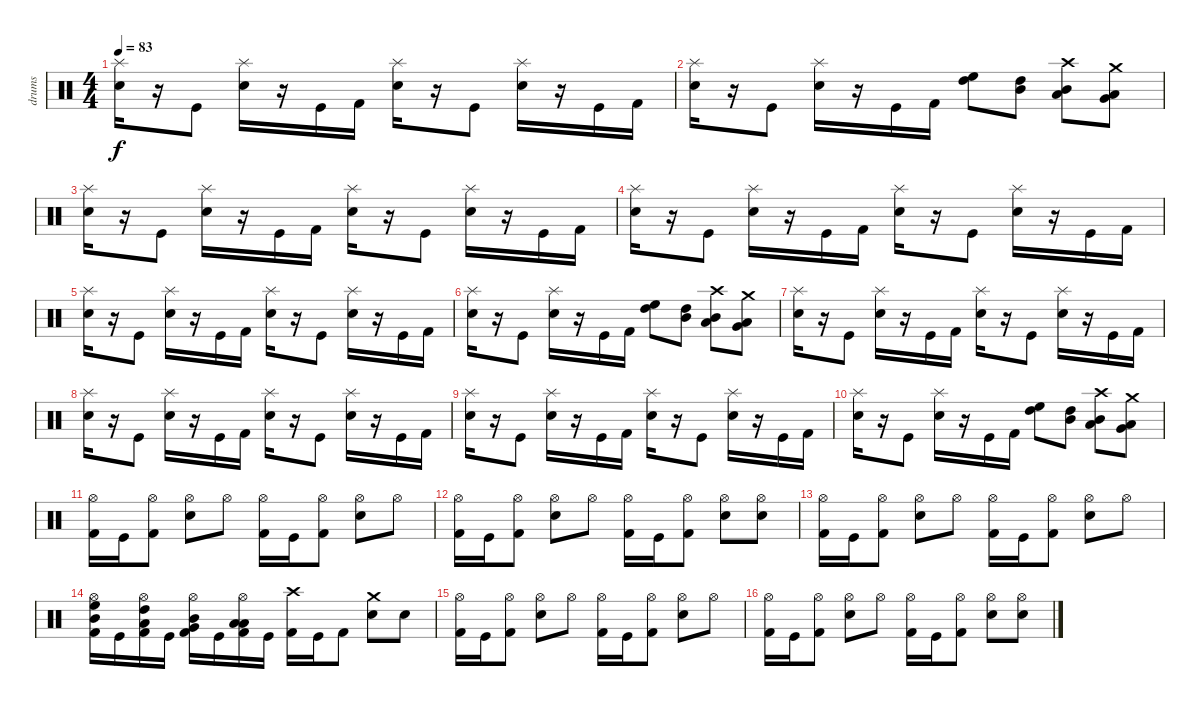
\track ("drums" "drums") {instrument percussion}
\staff {score}
\articulation defaults
\ts (4 4)
\tempo 83
\clef neutral
\ks c
("Snare (hit) 2" "Splash (hit)").16{dy f} r.16 "Kick (hit)".8 ("Snare (hit) 2" "Splash (hit)").16 r.16 "Kick (hit)".16 "Kick (hit) 2".16 ("Snare (hit) 2" "Splash (hit)").16 r.16 "Kick (hit)".8 ("Snare (hit) 2" "Splash (hit)").16 r.16 "Kick (hit)".16 "Kick (hit) 2".16 |
("Snare (hit) 2" "Splash (hit)").16 r.16 "Kick (hit)".8 ("Snare (hit) 2" "Splash (hit)").16 r.16 "Kick (hit)".16 "Kick (hit) 2".16 ("High Floor Tom (hit)" "High Tom (hit)").8 ("Mid Tom (hit)" "High Tom (hit)").8 ("Low Tom (hit)" "Mid Tom (hit)" "Crash high (hit)").8 ("Very Low Tom (hit)" "Low Tom (hit)" "Crash medium (hit)").8 |
("Snare (hit) 2" "Splash (hit)").16 r.16 "Kick (hit)".8 ("Snare (hit) 2" "Splash (hit)").16 r.16 "Kick (hit)".16 "Kick (hit) 2".16 ("Snare (hit) 2" "Splash (hit)").16 r.16 "Kick (hit)".8 ("Snare (hit) 2" "Splash (hit)").16 r.16 "Kick (hit)".16 "Kick (hit) 2".16 |
("Snare (hit) 2" "Splash (hit)").16 r.16 "Kick (hit)".8 ("Snare (hit) 2" "Splash (hit)").16 r.16 "Kick (hit)".16 "Kick (hit) 2".16 ("Snare (hit) 2" "Splash (hit)").16 r.16 "Kick (hit)".8 ("Snare (hit) 2" "Splash (hit)").16 r.16 "Kick (hit)".16 "Kick (hit) 2".16 |
("Snare (hit) 2" "Splash (hit)").16 r.16 "Kick (hit)".8 ("Snare (hit) 2" "Splash (hit)").16 r.16 "Kick (hit)".16 "Kick (hit) 2".16 ("Snare (hit) 2" "Splash (hit)").16 r.16 "Kick (hit)".8 ("Snare (hit) 2" "Splash (hit)").16 r.16 "Kick (hit)".16 "Kick (hit) 2".16 |
("Snare (hit) 2" "Splash (hit)").16 r.16 "Kick (hit)".8 ("Snare (hit) 2" "Splash (hit)").16 r.16 "Kick (hit)".16 "Kick (hit) 2".16 ("High Floor Tom (hit)" "High Tom (hit)").8 ("Mid Tom (hit)" "High Tom (hit)").8 ("Low Tom (hit)" "Mid Tom (hit)" "Crash high (hit)").8 ("Very Low Tom (hit)" "Low Tom (hit)" "Crash medium (hit)").8 |
("Snare (hit) 2" "Splash (hit)").16 r.16 "Kick (hit)".8 ("Snare (hit) 2" "Splash (hit)").16 r.16 "Kick (hit)".16 "Kick (hit) 2".16 ("Snare (hit) 2" "Splash (hit)").16 r.16 "Kick (hit)".8 ("Snare (hit) 2" "Splash (hit)").16 r.16 "Kick (hit)".16 "Kick (hit) 2".16 |
("Snare (hit) 2" "Splash (hit)").16 r.16 "Kick (hit)".8 ("Snare (hit) 2" "Splash (hit)").16 r.16 "Kick (hit)".16 "Kick (hit) 2".16 ("Snare (hit) 2" "Splash (hit)").16 r.16 "Kick (hit)".8 ("Snare (hit) 2" "Splash (hit)").16 r.16 "Kick (hit)".16 "Kick (hit) 2".16 |
("Snare (hit) 2" "Splash (hit)").16 r.16 "Kick (hit)".8 ("Snare (hit) 2" "Splash (hit)").16 r.16 "Kick (hit)".16 "Kick (hit) 2".16 ("Snare (hit) 2" "Splash (hit)").16 r.16 "Kick (hit)".8 ("Snare (hit) 2" "Splash (hit)").16 r.16 "Kick (hit)".16 "Kick (hit) 2".16 |
("Snare (hit) 2" "Splash (hit)").16 r.16 "Kick (hit)".8 ("Snare (hit) 2" "Splash (hit)").16 r.16 "Kick (hit)".16 "Kick (hit) 2".16 ("High Floor Tom (hit)" "High Tom (hit)").8 ("Mid Tom (hit)" "High Tom (hit)").8 ("Low Tom (hit)" "Mid Tom (hit)" "Crash high (hit)").8 ("Very Low Tom (hit)" "Low Tom (hit)" "Crash medium (hit)").8 |
("Hi-Hat (open)" "Kick (hit) 2").16 "Kick (hit)".16 ("Kick (hit) 2" "Hi-Hat (open)").8 ("Electric Snare (hit)" "Hi-Hat (open)").8 "Hi-Hat (open)".8 ("Kick (hit) 2" "Hi-Hat (open)").16 "Kick (hit)".16 ("Kick (hit) 2" "Hi-Hat (open)").8 ("Electric Snare (hit)" "Hi-Hat (open)").8 "Hi-Hat (open)".8 |
("Kick (hit) 2" "Hi-Hat (open)").16 "Kick (hit)".16 ("Kick (hit) 2" "Hi-Hat (open)").8 ("Electric Snare (hit)" "Hi-Hat (open)").8 "Hi-Hat (open)".8 ("Kick (hit) 2" "Hi-Hat (open)").16 "Kick (hit)".16 ("Kick (hit) 2" "Hi-Hat (open)").8 ("Electric Snare (hit)" "Hi-Hat (open)").8 ("Snare (hit) 2" "Hi-Hat (open)").8 |
("Hi-Hat (open)" "Kick (hit) 2").16 "Kick (hit)".16 ("Kick (hit) 2" "Hi-Hat (open)").8 ("Electric Snare (hit)" "Hi-Hat (open)").8 "Hi-Hat (open)".8 ("Kick (hit) 2" "Hi-Hat (open)").16 "Kick (hit)".16 ("Kick (hit) 2" "Hi-Hat (open)").8 ("Electric Snare (hit)" "Hi-Hat (open)").8 "Hi-Hat (open)".8 |
("Kick (hit) 2" "Mid Tom (hit)" "High Floor Tom (hit)" "Hi-Hat (open)").16 "Kick (hit)".16 ("Kick (hit) 2" "Low Tom (hit)" "High Tom (hit)" "Hi-Hat (open)").16 "Kick (hit)".16 ("Kick (hit) 2" "Very Low Tom (hit)" "Mid Tom (hit)" "Hi-Hat (open)").16 "Kick (hit)".16 ("Kick (hit) 2" "Low Floor Tom (hit)" "Low Tom (hit)" "Hi-Hat (open)").16 "Kick (hit)".16 ("Kick (hit) 2" "Crash high (hit)").16 "Kick (hit)".16 "Kick (hit) 2".8 ("Electric Snare (hit)" "Crash medium (hit)").8 "Snare (hit) 2".8 |
("Hi-Hat (open)" "Kick (hit) 2").16 "Kick (hit)".16 ("Kick (hit) 2" "Hi-Hat (open)").8 ("Electric Snare (hit)" "Hi-Hat (open)").8 "Hi-Hat (open)".8 ("Kick (hit) 2" "Hi-Hat (open)").16 "Kick (hit)".16 ("Kick (hit) 2" "Hi-Hat (open)").8 ("Electric Snare (hit)" "Hi-Hat (open)").8 "Hi-Hat (open)".8 |
("Kick (hit) 2" "Hi-Hat (open)").16 "Kick (hit)".16 ("Kick (hit) 2" "Hi-Hat (open)").8 ("Electric Snare (hit)" "Hi-Hat (open)").8 "Hi-Hat (open)".8 ("Kick (hit) 2" "Hi-Hat (open)").16 "Kick (hit)".16 ("Kick (hit) 2" "Hi-Hat (open)").8 ("Electric Snare (hit)" "Hi-Hat (open)").8 ("Snare (hit) 2" "Hi-Hat (open)").8
